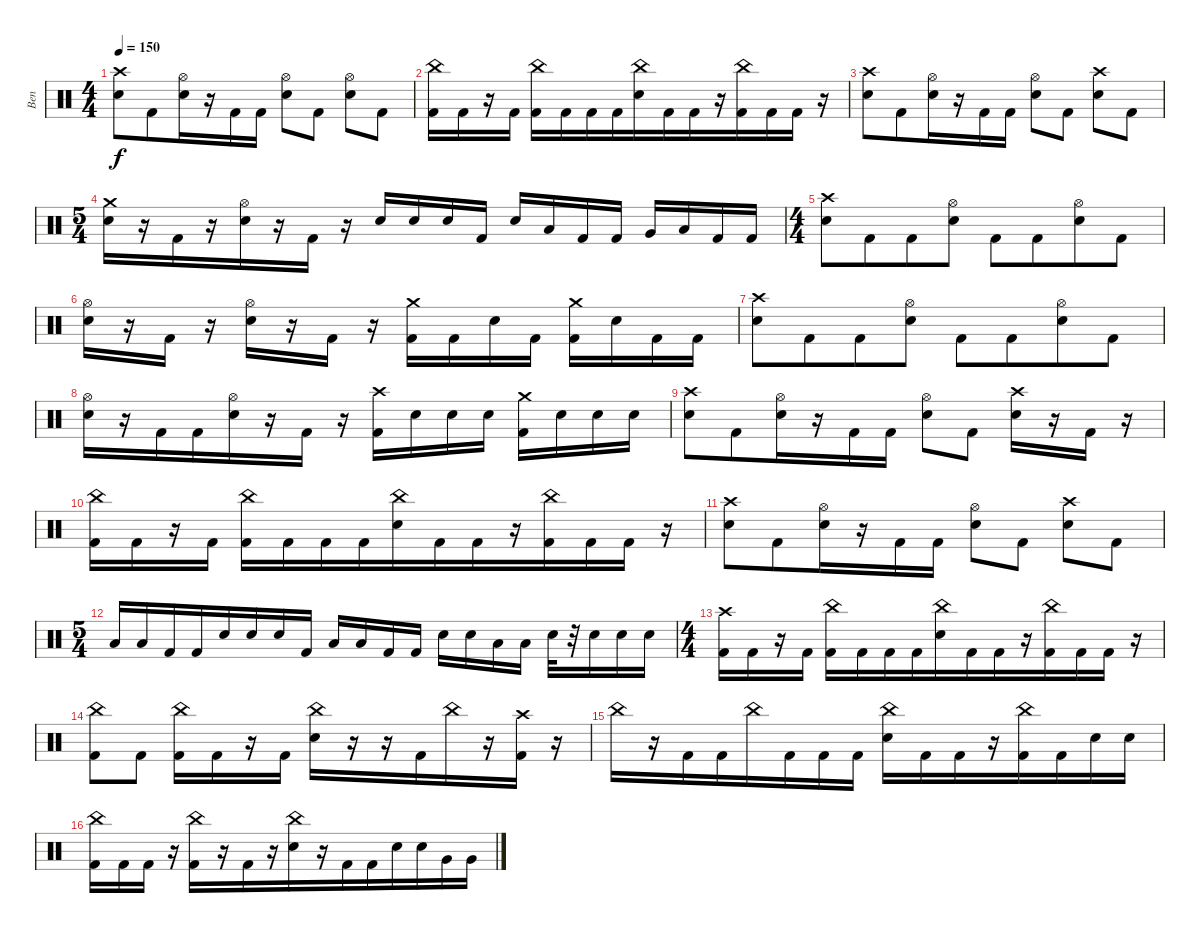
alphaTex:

\track ("Ben" "Ben") {instrument percussion}
\staff {score}
\articulation defaults
\ts (4 4)
\tempo 150
\clef neutral
\ks c
("Electric Snare (hit)" "Crash high (hit)").8{dy f} "Kick (hit) 2".8{beam merge} ("Electric Snare (hit)" "Hi-Hat (open)").16 r.16{beam merge} "Kick (hit) 2".16{beam merge} "Kick (hit) 2".16 ("Electric Snare (hit)" "Hi-Hat (open)").8{beam merge} "Kick (hit) 2".8 ("Electric Snare (hit)" "Hi-Hat (open)").8 "Kick (hit) 2".8 |
("China (hit)" "Kick (hit) 2").16 "Kick (hit) 2".16 r.16 "Kick (hit) 2".16 ("China (hit)" "Kick (hit) 2").16 "Kick (hit) 2".16{beam merge} "Kick (hit) 2".16 "Kick (hit) 2".16{beam merge} ("China (hit)" "Electric Snare (hit)").16{beam merge} "Kick (hit) 2".16{beam merge} "Kick (hit) 2".16{beam merge} r.16{beam merge} ("China (hit)" "Kick (hit) 2").16{beam merge} "Kick (hit) 2".16{beam merge} "Kick (hit) 2".16{beam merge} r.16 |
("Electric Snare (hit)" "Crash high (hit)").8 "Kick (hit) 2".8{beam merge} ("Electric Snare (hit)" "Hi-Hat (open)").16 r.16{beam merge} "Kick (hit) 2".16{beam merge} "Kick (hit) 2".16 ("Electric Snare (hit)" "Hi-Hat (open)").8{beam merge} "Kick (hit) 2".8 ("Electric Snare (hit)" "Crash high (hit)").8 "Kick (hit) 2".8 |
\ts (5 4)
("Electric Snare (hit)" "Crash medium (hit)").16 r.16{beam merge} "Kick (hit) 2".16{beam merge} r.16{beam merge} ("Electric Snare (hit)" "Hi-Hat (open)").16{beam merge} r.16 "Kick (hit) 2".16 r.16{beam merge} "Electric Snare (hit)".16 "Electric Snare (hit)".16{beam merge} "Electric Snare (hit)".16 "Kick (hit) 2".16 "Electric Snare (hit)".16{beam merge} "Low Tom (hit)".16 "Kick (hit) 2".16 "Kick (hit) 2".16 "Very Low Tom (hit)".16{beam merge} "Low Floor Tom (hit)".16 "Kick (hit) 2".16{beam merge} "Kick (hit) 2".16 |
\ts (4 4)
("Electric Snare (hit)" "Crash high (hit)").8{beam merge} "Kick (hit) 2".8{beam merge} "Kick (hit) 2".8{beam merge} ("Electric Snare (hit)" "Hi-Hat (open)").8 "Kick (hit) 2".8 "Kick (hit) 2".8{beam merge} ("Electric Snare (hit)" "Hi-Hat (open)").8{beam merge} "Kick (hit) 2".8 |
("Electric Snare (hit)" "Hi-Hat (open)").16{beam merge} r.16{beam merge} "Kick (hit) 2".16 r.16{beam merge} ("Hi-Hat (open)" "Electric Snare (hit)").16 r.16{beam merge} "Kick (hit) 2".16 r.16 ("Kick (hit) 2" "Crash medium (hit)").16 "Kick (hit) 2".16 "Electric Snare (hit)".16 "Kick (hit) 2".16 ("Kick (hit) 2" "Crash medium (hit)").16 "Electric Snare (hit)".16{beam merge} "Kick (hit) 2".16 "Kick (hit) 2".16 |
("Electric Snare (hit)" "Crash high (hit)").8{beam merge} "Kick (hit) 2".8{beam merge} "Kick (hit) 2".8{beam merge} ("Electric Snare (hit)" "Hi-Hat (open)").8 "Kick (hit) 2".8 "Kick (hit) 2".8{beam merge} ("Electric Snare (hit)" "Hi-Hat (open)").8{beam merge} "Kick (hit) 2".8 |
("Electric Snare (hit)" "Hi-Hat (open)").16{beam merge} r.16{beam merge} "Kick (hit) 2".16 "Kick (hit) 2".16{beam merge} ("Hi-Hat (open)" "Electric Snare (hit)").16 r.16{beam merge} "Kick (hit) 2".16 r.16 ("Crash high (hit)" "Kick (hit) 2").16 "Electric Snare (hit)".16 "Electric Snare (hit)".16 "Electric Snare (hit)".16 ("Crash medium (hit)" "Kick (hit) 2").16 "Electric Snare (hit)".16{beam merge} "Electric Snare (hit)".16 "Electric Snare (hit)".16 |
("Electric Snare (hit)" "Crash high (hit)").8 "Kick (hit) 2".8{beam merge} ("Electric Snare (hit)" "Hi-Hat (open)").16 r.16{beam merge} "Kick (hit) 2".16{beam merge} "Kick (hit) 2".16 ("Electric Snare (hit)" "Hi-Hat (open)").8{beam merge} "Kick (hit) 2".8 ("Electric Snare (hit)" "Crash high (hit)").16 r.16{beam merge} "Kick (hit) 2".16{beam merge} r.16 |
("China (hit)" "Kick (hit) 2").16 "Kick (hit) 2".16 r.16 "Kick (hit) 2".16 ("China (hit)" "Kick (hit) 2").16 "Kick (hit) 2".16{beam merge} "Kick (hit) 2".16 "Kick (hit) 2".16{beam merge} ("China (hit)" "Electric Snare (hit)").16{beam merge} "Kick (hit) 2".16{beam merge} "Kick (hit) 2".16{beam merge} r.16{beam merge} ("China (hit)" "Kick (hit) 2").16{beam merge} "Kick (hit) 2".16{beam merge} "Kick (hit) 2".16{beam merge} r.16 |
("Electric Snare (hit)" "Crash high (hit)").8 "Kick (hit) 2".8{beam merge} ("Electric Snare (hit)" "Hi-Hat (open)").16 r.16{beam merge} "Kick (hit) 2".16{beam merge} "Kick (hit) 2".16 ("Electric Snare (hit)" "Hi-Hat (open)").8{beam merge} "Kick (hit) 2".8 ("Electric Snare (hit)" "Crash high (hit)").8 "Kick (hit) 2".8 |
\ts (5 4)
"Low Tom (hit)".16{beam merge} "Low Tom (hit)".16 "Kick (hit) 2".16 "Kick (hit) 2".16{beam merge} "Electric Snare (hit)".16 "Electric Snare (hit)".16{beam merge} "Electric Snare (hit)".16 "Kick (hit) 2".16 "Low Tom (hit)".16{beam merge} "Low Tom (hit)".16 "Kick (hit) 2".16 "Kick (hit) 2".16 "Electric Snare (hit)".16{beam merge} "Electric Snare (hit)".16 "Low Floor Tom (hit)".16{beam merge} "Low Floor Tom (hit)".16 "Electric Snare (hit)".32{beam merge} r.32{beam merge} "Electric Snare (hit)".16 "Electric Snare (hit)".16 "Electric Snare (hit)".16 |
\ts (4 4)
("Crash high (hit)" "Kick (hit) 2").16 "Kick (hit) 2".16 r.16 "Kick (hit) 2".16 ("China (hit)" "Kick (hit) 2").16 "Kick (hit) 2".16{beam merge} "Kick (hit) 2".16 "Kick (hit) 2".16{beam merge} ("China (hit)" "Electric Snare (hit)").16{beam merge} "Kick (hit) 2".16{beam merge} "Kick (hit) 2".16{beam merge} r.16{beam merge} ("China (hit)" "Kick (hit) 2").16{beam merge} "Kick (hit) 2".16{beam merge} "Kick (hit) 2".16{beam merge} r.16 |
("China (hit)" "Kick (hit) 2").8 "Kick (hit) 2".8 ("Kick (hit) 2" "China (hit)").16{beam merge} "Kick (hit) 2".16 r.16 "Kick (hit) 2".16 ("China (hit)" "Electric Snare (hit)").16 r.16 r.16{beam merge} "Kick (hit) 2".16{beam merge} "China (hit)".16{beam merge} r.16 ("Crash high (hit)" "Kick (hit) 2").16 r.16 |
"China (hit)".16 r.16 "Kick (hit) 2".16{beam merge} "Kick (hit) 2".16{beam merge} "China (hit)".16 "Kick (hit) 2".16 "Kick (hit) 2".16 "Kick (hit) 2".16 ("Electric Snare (hit)" "China (hit)").16 "Kick (hit) 2".16{beam merge} "Kick (hit) 2".16{beam merge} r.16 ("Kick (hit) 2" "China (hit)").16{beam merge} "Kick (hit) 2".16{beam merge} "Electric Snare (hit)".16 "Electric Snare (hit)".16 |
("China (hit)" "Kick (hit) 2").16{beam merge} "Kick (hit) 2".16 "Kick (hit) 2".16 r.16 ("China (hit)" "Kick (hit) 2").16{beam merge} r.16 "Kick (hit) 2".16{beam merge} r.16 ("China (hit)" "Electric Snare (hit)").16{beam merge} r.16 "Kick (hit) 2".16 "Kick (hit) 2".16{beam merge} "Electric Snare (hit)".16 "Electric Snare (hit)".16 "Very Low Tom (hit)".16{beam merge} "Very Low Tom (hit)".16
